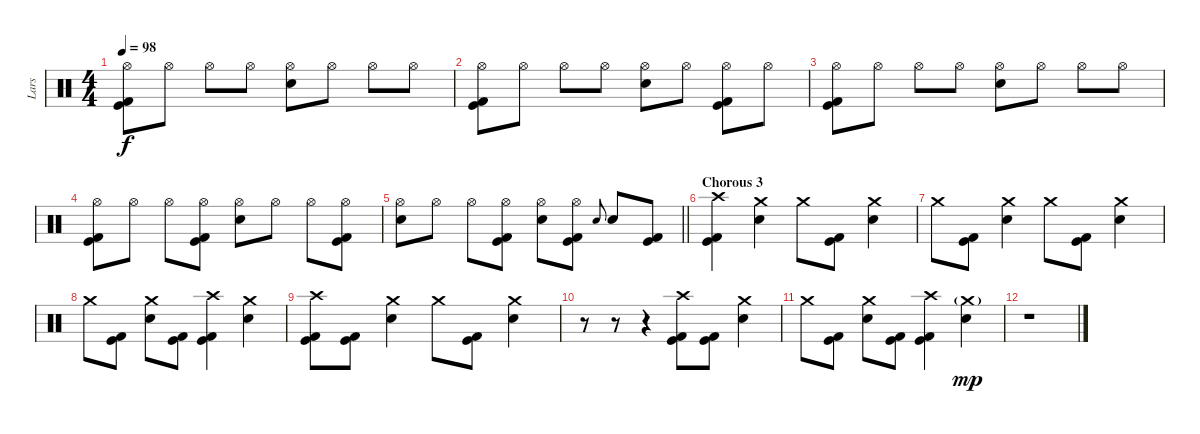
\track ("Lars" "Lars") {instrument percussion}
\staff {score}
\articulation defaults
\ts (4 4)
\tempo 98
\clef neutral
\ks c
("Hi-Hat (open)" "Kick (hit)" "Kick (hit) 2").8{dy f} "Hi-Hat (open)".8 "Hi-Hat (open)".8 "Hi-Hat (open)".8 ("Hi-Hat (open)" "Electric Snare (hit)").8 "Hi-Hat (open)".8 "Hi-Hat (open)".8 "Hi-Hat (open)".8 |
("Hi-Hat (open)" "Kick (hit)" "Kick (hit) 2").8 "Hi-Hat (open)".8 "Hi-Hat (open)".8 "Hi-Hat (open)".8 ("Hi-Hat (open)" "Electric Snare (hit)").8 "Hi-Hat (open)".8 ("Hi-Hat (open)" "Kick (hit)" "Kick (hit) 2").8 "Hi-Hat (open)".8 |
("Hi-Hat (open)" "Kick (hit)" "Kick (hit) 2").8 "Hi-Hat (open)".8 "Hi-Hat (open)".8 "Hi-Hat (open)".8 ("Hi-Hat (open)" "Electric Snare (hit)").8 "Hi-Hat (open)".8 "Hi-Hat (open)".8 "Hi-Hat (open)".8 |
("Hi-Hat (open)" "Kick (hit)" "Kick (hit) 2").8 "Hi-Hat (open)".8 "Hi-Hat (open)".8 ("Hi-Hat (open)" "Kick (hit)" "Kick (hit) 2").8 ("Hi-Hat (open)" "Electric Snare (hit)").8 "Hi-Hat (open)".8 "Hi-Hat (open)".8 ("Hi-Hat (open)" "Kick (hit)" "Kick (hit) 2").8 |
\barLineRight lightlight
("Hi-Hat (open)" "Electric Snare (hit)").8 "Hi-Hat (open)".8 "Hi-Hat (open)".8 ("Hi-Hat (open)" "Kick (hit)" "Kick (hit) 2").8 ("Hi-Hat (open)" "Electric Snare (hit)").8 ("Hi-Hat (open)" "Kick (hit)" "Kick (hit) 2").8 "Electric Snare (hit)".8{gr onbeat} "Electric Snare (hit)".8 ("Kick (hit)" "Kick (hit) 2").8 |
\section ("" "Chorous 3")
("Crash high (hit)" "Kick (hit)" "Kick (hit) 2").4 ("Crash medium (hit)" "Electric Snare (hit)").4 "Crash medium (hit)".8 ("Kick (hit)" "Kick (hit) 2").8 ("Crash medium (hit)" "Electric Snare (hit)").4 |
"Crash medium (hit)".8 ("Kick (hit)" "Kick (hit) 2").8 ("Crash medium (hit)" "Electric Snare (hit)").4 "Crash medium (hit)".8 ("Kick (hit)" "Kick (hit) 2").8 ("Crash medium (hit)" "Electric Snare (hit)").4 |
"Crash medium (hit)".8 ("Kick (hit)" "Kick (hit) 2").8 ("Crash medium (hit)" "Electric Snare (hit)").8 ("Kick (hit)" "Kick (hit) 2").8 ("Crash high (hit)" "Kick (hit)" "Kick (hit) 2").4 ("Crash medium (hit)" "Electric Snare (hit)").4 |
("Crash high (hit)" "Kick (hit)" "Kick (hit) 2").8 ("Kick (hit)" "Kick (hit) 2").8 ("Crash medium (hit)" "Electric Snare (hit)").4 "Crash medium (hit)".8 ("Kick (hit)" "Kick (hit) 2").8 ("Crash medium (hit)" "Electric Snare (hit)").4 |
r.8 r.8 r.4 ("Crash high (hit)" "Kick (hit)" "Kick (hit) 2").8 ("Kick (hit)" "Kick (hit) 2").8 ("Crash medium (hit)" "Electric Snare (hit)").4 |
"Crash medium (hit)".8 ("Kick (hit)" "Kick (hit) 2").8 ("Crash medium (hit)" "Electric Snare (hit)").8 ("Kick (hit)" "Kick (hit) 2").8 ("Crash high (hit)" "Kick (hit)" "Kick (hit) 2").4 ("Crash medium (hit)"{g} "Electric Snare (hit)").4{dy mp} |
r.1
